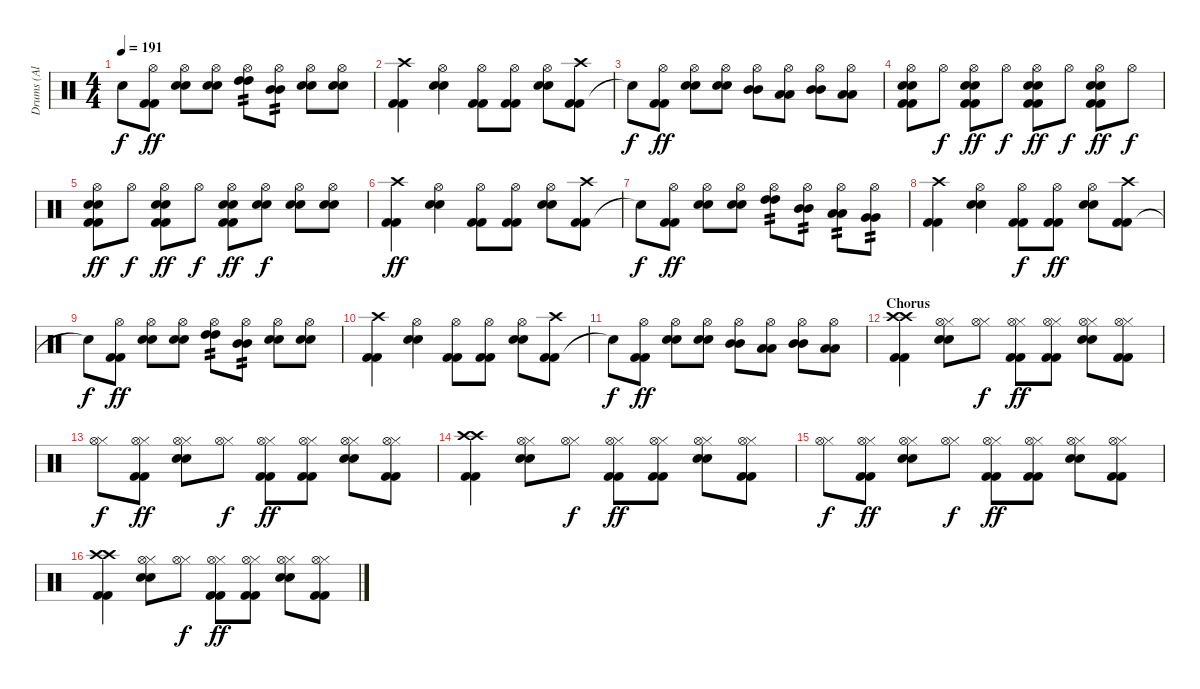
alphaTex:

\track ("Drums (Al Sobrante)" "Drums (Al ") {instrument percussion}
\staff {score}
\articulation defaults
\ts (4 4)
\tempo 191
\clef neutral
\ks c "Snare (hit)"{t}.8{dy f}
("Kick (hit) 2" "Kick (hit) 2" "Hi-Hat (open)").8{dy ff} ("Electric Snare (hit)" "Electric Snare (hit)" "Hi-Hat (open)").8 ("Electric Snare (hit)" "Electric Snare (hit)" "Hi-Hat (open)").8 ("High Tom (hit)" "High Tom (hit)" "Hi-Hat (open)").8{tp 2} ("Mid Tom (hit)" "Mid Tom (hit)" "Hi-Hat (open)").8{tp 2} ("Electric Snare (hit)" "Electric Snare (hit)" "Hi-Hat (open)").8 ("Electric Snare (hit)" "Electric Snare (hit)" "Hi-Hat (open)").8 |
("Kick (hit) 2" "Kick (hit) 2" "Crash high (hit)").4 ("Electric Snare (hit)" "Electric Snare (hit)" "Hi-Hat (open)").4 ("Kick (hit) 2" "Kick (hit) 2" "Hi-Hat (open)").8 ("Kick (hit) 2" "Kick (hit) 2" "Hi-Hat (open)").8 ("Electric Snare (hit)" "Electric Snare (hit)" "Hi-Hat (open)").8 ("Kick (hit) 2" "Kick (hit) 2" "Crash high (hit)").8 |
"Snare (hit)"{t}.8{dy f} ("Kick (hit) 2" "Kick (hit) 2" "Hi-Hat (open)").8{dy ff} ("Electric Snare (hit)" "Electric Snare (hit)" "Hi-Hat (open)").8 ("Electric Snare (hit)" "Electric Snare (hit)" "Hi-Hat (open)").8 ("Mid Tom (hit)" "Mid Tom (hit)" "Hi-Hat (open)").8 ("Low Tom (hit)" "Low Tom (hit)" "Hi-Hat (open)").8 ("Mid Tom (hit)" "Mid Tom (hit)" "Hi-Hat (open)").8 ("Low Tom (hit)" "Low Tom (hit)" "Hi-Hat (open)").8 |
("Kick (hit) 2" "Kick (hit) 2" "Electric Snare (hit)" "Electric Snare (hit)" "Hi-Hat (open)").8 "Hi-Hat (open)".8{dy f} ("Kick (hit) 2" "Kick (hit) 2" "Electric Snare (hit)" "Electric Snare (hit)" "Hi-Hat (open)").8{dy ff} "Hi-Hat (open)".8{dy f} ("Kick (hit) 2" "Kick (hit) 2" "Electric Snare (hit)" "Electric Snare (hit)" "Hi-Hat (open)").8{dy ff} "Hi-Hat (open)".8{dy f} ("Kick (hit) 2" "Kick (hit) 2" "Electric Snare (hit)" "Electric Snare (hit)" "Hi-Hat (open)").8{dy ff} "Hi-Hat (open)".8{dy f} |
("Kick (hit) 2" "Kick (hit) 2" "Electric Snare (hit)" "Electric Snare (hit)" "Hi-Hat (open)").8{dy ff} "Hi-Hat (open)".8{dy f} ("Kick (hit) 2" "Kick (hit) 2" "Electric Snare (hit)" "Electric Snare (hit)" "Hi-Hat (open)").8{dy ff} "Hi-Hat (open)".8{dy f} ("Kick (hit) 2" "Kick (hit) 2" "Electric Snare (hit)" "Electric Snare (hit)" "Hi-Hat (open)").8{dy ff} ("Electric Snare (hit)" "Electric Snare (hit)" "Hi-Hat (open)").8{dy f} ("Electric Snare (hit)" "Electric Snare (hit)" "Hi-Hat (open)").8 ("Electric Snare (hit)" "Electric Snare (hit)" "Hi-Hat (open)").8 |
("Kick (hit) 2" "Kick (hit) 2" "Crash high (hit)").4{dy ff} ("Electric Snare (hit)" "Electric Snare (hit)" "Hi-Hat (open)").4 ("Kick (hit) 2" "Kick (hit) 2" "Hi-Hat (open)").8 ("Kick (hit) 2" "Kick (hit) 2" "Hi-Hat (open)").8 ("Electric Snare (hit)" "Electric Snare (hit)" "Hi-Hat (open)").8 ("Kick (hit) 2" "Kick (hit) 2" "Crash high (hit)").8 |
"Snare (hit)"{t}.8{dy f} ("Kick (hit) 2" "Kick (hit) 2" "Hi-Hat (open)").8{dy ff} ("Electric Snare (hit)" "Electric Snare (hit)" "Hi-Hat (open)").8 ("Electric Snare (hit)" "Electric Snare (hit)" "Hi-Hat (open)").8 ("High Tom (hit)" "High Tom (hit)" "Hi-Hat (open)").8{tp 2} ("Mid Tom (hit)" "Mid Tom (hit)" "Hi-Hat (open)").8{tp 2} ("Low Tom (hit)" "Low Tom (hit)" "Hi-Hat (open)").8{tp 2} ("Very Low Tom (hit)" "Very Low Tom (hit)" "Hi-Hat (open)").8{tp 2} |
("Kick (hit) 2" "Kick (hit) 2" "Crash high (hit)").4 ("Electric Snare (hit)" "Electric Snare (hit)" "Hi-Hat (open)").4 ("Kick (hit) 2" "Kick (hit) 2" "Hi-Hat (open)").8{dy f} ("Kick (hit) 2" "Kick (hit) 2" "Hi-Hat (open)").8{dy ff} ("Electric Snare (hit)" "Electric Snare (hit)" "Hi-Hat (open)").8 ("Kick (hit) 2" "Kick (hit) 2" "Crash high (hit)").8 |
"Snare (hit)"{t}.8{dy f} ("Kick (hit) 2" "Kick (hit) 2" "Hi-Hat (open)").8{dy ff} ("Electric Snare (hit)" "Electric Snare (hit)" "Hi-Hat (open)").8 ("Electric Snare (hit)" "Electric Snare (hit)" "Hi-Hat (open)").8 ("High Tom (hit)" "High Tom (hit)" "Hi-Hat (open)").8{tp 2} ("Mid Tom (hit)" "Mid Tom (hit)" "Hi-Hat (open)").8{tp 2} ("Electric Snare (hit)" "Electric Snare (hit)" "Hi-Hat (open)").8 ("Electric Snare (hit)" "Electric Snare (hit)" "Hi-Hat (open)").8 |
("Kick (hit) 2" "Kick (hit) 2" "Crash high (hit)").4 ("Electric Snare (hit)" "Electric Snare (hit)" "Hi-Hat (open)").4 ("Kick (hit) 2" "Kick (hit) 2" "Hi-Hat (open)").8 ("Kick (hit) 2" "Kick (hit) 2" "Hi-Hat (open)").8 ("Electric Snare (hit)" "Electric Snare (hit)" "Hi-Hat (open)").8 ("Kick (hit) 2" "Kick (hit) 2" "Crash high (hit)").8 |
"Snare (hit)"{t}.8{dy f} ("Kick (hit) 2" "Kick (hit) 2" "Hi-Hat (open)").8{dy ff} ("Electric Snare (hit)" "Electric Snare (hit)" "Hi-Hat (open)").8 ("Electric Snare (hit)" "Electric Snare (hit)" "Hi-Hat (open)").8 ("Mid Tom (hit)" "Mid Tom (hit)" "Hi-Hat (open)").8 ("Low Tom (hit)" "Low Tom (hit)" "Hi-Hat (open)").8 ("Mid Tom (hit)" "Mid Tom (hit)" "Hi-Hat (open)").8 ("Low Tom (hit)" "Low Tom (hit)" "Hi-Hat (open)").8 |
\section ("" "Chorus")
("Kick (hit) 2" "Kick (hit) 2" "Crash high (hit)" "Crash high (hit)").4 ("Electric Snare (hit)" "Electric Snare (hit)" "Hi-Hat (closed)" "Hi-Hat (open)").8 ("Hi-Hat (closed)" "Hi-Hat (open)").8{dy f} ("Kick (hit) 2" "Kick (hit) 2" "Hi-Hat (closed)" "Hi-Hat (open)").8{dy ff} ("Kick (hit) 2" "Kick (hit) 2" "Hi-Hat (closed)" "Hi-Hat (open)").8 ("Electric Snare (hit)" "Electric Snare (hit)" "Hi-Hat (closed)" "Hi-Hat (open)").8 ("Kick (hit) 2" "Kick (hit) 2" "Hi-Hat (closed)" "Hi-Hat (open)").8 |
("Hi-Hat (closed)" "Hi-Hat (open)").8{dy f} ("Kick (hit) 2" "Kick (hit) 2" "Hi-Hat (closed)" "Hi-Hat (open)").8{dy ff} ("Electric Snare (hit)" "Electric Snare (hit)" "Hi-Hat (closed)" "Hi-Hat (open)").8 ("Hi-Hat (closed)" "Hi-Hat (open)").8{dy f} ("Kick (hit) 2" "Kick (hit) 2" "Hi-Hat (closed)" "Hi-Hat (open)").8{dy ff} ("Kick (hit) 2" "Kick (hit) 2" "Hi-Hat (closed)" "Hi-Hat (open)").8 ("Electric Snare (hit)" "Electric Snare (hit)" "Hi-Hat (closed)" "Hi-Hat (open)").8 ("Kick (hit) 2" "Kick (hit) 2" "Hi-Hat (closed)" "Hi-Hat (open)").8 |
("Kick (hit) 2" "Kick (hit) 2" "Crash high (hit)" "Crash high (hit)").4 ("Electric Snare (hit)" "Electric Snare (hit)" "Hi-Hat (closed)" "Hi-Hat (open)").8 ("Hi-Hat (closed)" "Hi-Hat (open)").8{dy f} ("Kick (hit) 2" "Kick (hit) 2" "Hi-Hat (closed)" "Hi-Hat (open)").8{dy ff} ("Kick (hit) 2" "Kick (hit) 2" "Hi-Hat (closed)" "Hi-Hat (open)").8 ("Electric Snare (hit)" "Electric Snare (hit)" "Hi-Hat (closed)" "Hi-Hat (open)").8 ("Kick (hit) 2" "Kick (hit) 2" "Hi-Hat (closed)" "Hi-Hat (open)").8 |
("Hi-Hat (closed)" "Hi-Hat (open)").8{dy f} ("Kick (hit) 2" "Kick (hit) 2" "Hi-Hat (closed)" "Hi-Hat (open)").8{dy ff} ("Electric Snare (hit)" "Electric Snare (hit)" "Hi-Hat (closed)" "Hi-Hat (open)").8 ("Hi-Hat (closed)" "Hi-Hat (open)").8{dy f} ("Kick (hit) 2" "Kick (hit) 2" "Hi-Hat (closed)" "Hi-Hat (open)").8{dy ff} ("Kick (hit) 2" "Kick (hit) 2" "Hi-Hat (closed)" "Hi-Hat (open)").8 ("Electric Snare (hit)" "Electric Snare (hit)" "Hi-Hat (closed)" "Hi-Hat (open)").8 ("Kick (hit) 2" "Kick (hit) 2" "Hi-Hat (closed)" "Hi-Hat (open)").8 |
("Kick (hit) 2" "Kick (hit) 2" "Crash high (hit)" "Crash high (hit)").4 ("Electric Snare (hit)" "Electric Snare (hit)" "Hi-Hat (closed)" "Hi-Hat (open)").8 ("Hi-Hat (closed)" "Hi-Hat (open)").8{dy f} ("Kick (hit) 2" "Kick (hit) 2" "Hi-Hat (closed)" "Hi-Hat (open)").8{dy ff} ("Kick (hit) 2" "Kick (hit) 2" "Hi-Hat (closed)" "Hi-Hat (open)").8 ("Electric Snare (hit)" "Electric Snare (hit)" "Hi-Hat (closed)" "Hi-Hat (open)").8 ("Kick (hit) 2" "Kick (hit) 2" "Hi-Hat (closed)" "Hi-Hat (open)").8
